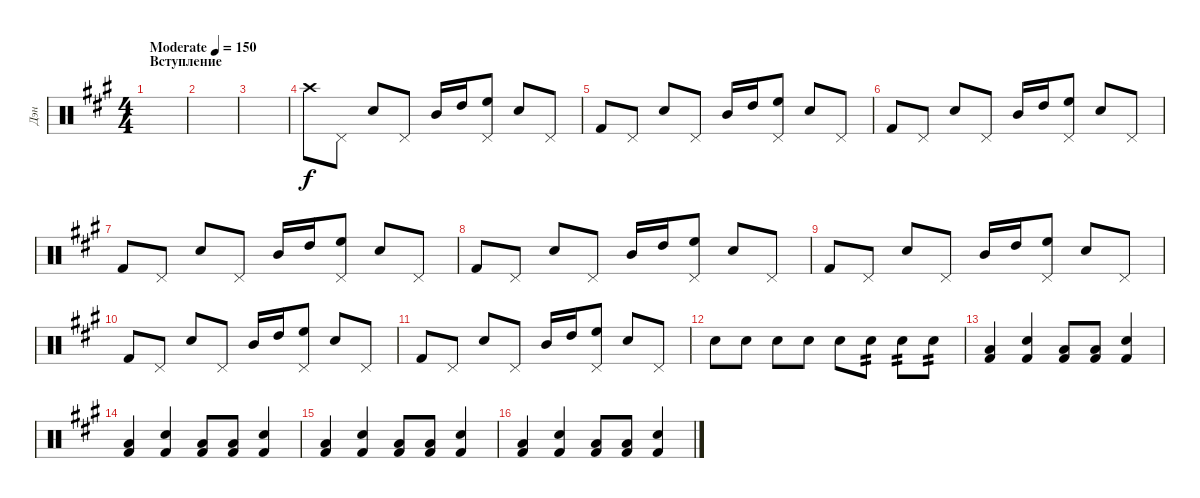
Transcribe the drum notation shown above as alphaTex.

\track ("Дэн" "Дэн") {instrument percussion}
\staff {score}
\articulation defaults
\ts (4 4)
\section ("" "Вступление")
\tempo (150 "Moderate")
\clef neutral
\ks f#minor
|
|
|
"Crash high (hit)".8 "Pedal Hi-Hat (hit)".8 "Snare (hit) 2".8 "Pedal Hi-Hat (hit)".8 "Mid Tom (hit)".16 "High Tom (hit)".16 ("High Floor Tom (hit)" "Pedal Hi-Hat (hit)").8 "Snare (hit) 2".8 "Pedal Hi-Hat (hit)".8 |
"Kick (hit) 2".8 "Pedal Hi-Hat (hit)".8 "Snare (hit) 2".8 "Pedal Hi-Hat (hit)".8 "Mid Tom (hit)".16 "High Tom (hit)".16 ("High Floor Tom (hit)" "Pedal Hi-Hat (hit)").8 "Snare (hit) 2".8 "Pedal Hi-Hat (hit)".8 |
"Kick (hit) 2".8 "Pedal Hi-Hat (hit)".8 "Snare (hit) 2".8 "Pedal Hi-Hat (hit)".8 "Mid Tom (hit)".16 "High Tom (hit)".16 ("High Floor Tom (hit)" "Pedal Hi-Hat (hit)").8 "Snare (hit) 2".8 "Pedal Hi-Hat (hit)".8 |
"Kick (hit) 2".8 "Pedal Hi-Hat (hit)".8 "Snare (hit) 2".8 "Pedal Hi-Hat (hit)".8 "Mid Tom (hit)".16 "High Tom (hit)".16 ("High Floor Tom (hit)" "Pedal Hi-Hat (hit)").8 "Snare (hit) 2".8 "Pedal Hi-Hat (hit)".8 |
"Kick (hit) 2".8 "Pedal Hi-Hat (hit)".8 "Snare (hit) 2".8 "Pedal Hi-Hat (hit)".8 "Mid Tom (hit)".16 "High Tom (hit)".16 ("High Floor Tom (hit)" "Pedal Hi-Hat (hit)").8 "Snare (hit) 2".8 "Pedal Hi-Hat (hit)".8 |
"Kick (hit) 2".8 "Pedal Hi-Hat (hit)".8 "Snare (hit) 2".8 "Pedal Hi-Hat (hit)".8 "Mid Tom (hit)".16 "High Tom (hit)".16 ("High Floor Tom (hit)" "Pedal Hi-Hat (hit)").8 "Snare (hit) 2".8 "Pedal Hi-Hat (hit)".8 |
"Kick (hit) 2".8 "Pedal Hi-Hat (hit)".8 "Snare (hit) 2".8 "Pedal Hi-Hat (hit)".8 "Mid Tom (hit)".16 "High Tom (hit)".16 ("High Floor Tom (hit)" "Pedal Hi-Hat (hit)").8 "Snare (hit) 2".8 "Pedal Hi-Hat (hit)".8 |
"Kick (hit) 2".8 "Pedal Hi-Hat (hit)".8 "Snare (hit) 2".8 "Pedal Hi-Hat (hit)".8 "Mid Tom (hit)".16 "High Tom (hit)".16 ("High Floor Tom (hit)" "Pedal Hi-Hat (hit)").8 "Snare (hit) 2".8 "Pedal Hi-Hat (hit)".8 |
"Snare (hit) 2".8 "Snare (hit) 2".8 "Snare (hit) 2".8 "Snare (hit) 2".8 "Snare (hit) 2".8 "Snare (hit) 2".8{tp 2} "Snare (hit) 2".8{tp 2} "Snare (hit) 2".8{tp 2} |
("Low Tom (hit)" "Kick (hit) 2").4 ("Snare (hit) 2" "Kick (hit) 2").4 ("Low Tom (hit)" "Kick (hit) 2").8 ("Low Tom (hit)" "Kick (hit) 2").8 ("Snare (hit) 2" "Kick (hit) 2").4 |
("Low Tom (hit)" "Kick (hit) 2").4 ("Snare (hit) 2" "Kick (hit) 2").4 ("Low Tom (hit)" "Kick (hit) 2").8 ("Low Tom (hit)" "Kick (hit) 2").8 ("Snare (hit) 2" "Kick (hit) 2").4 |
("Low Tom (hit)" "Kick (hit) 2").4 ("Snare (hit) 2" "Kick (hit) 2").4 ("Low Tom (hit)" "Kick (hit) 2").8 ("Low Tom (hit)" "Kick (hit) 2").8 ("Snare (hit) 2" "Kick (hit) 2").4 |
("Low Tom (hit)" "Kick (hit) 2").4 ("Snare (hit) 2" "Kick (hit) 2").4 ("Low Tom (hit)" "Kick (hit) 2").8 ("Low Tom (hit)" "Kick (hit) 2").8 ("Snare (hit) 2" "Kick (hit) 2").4
